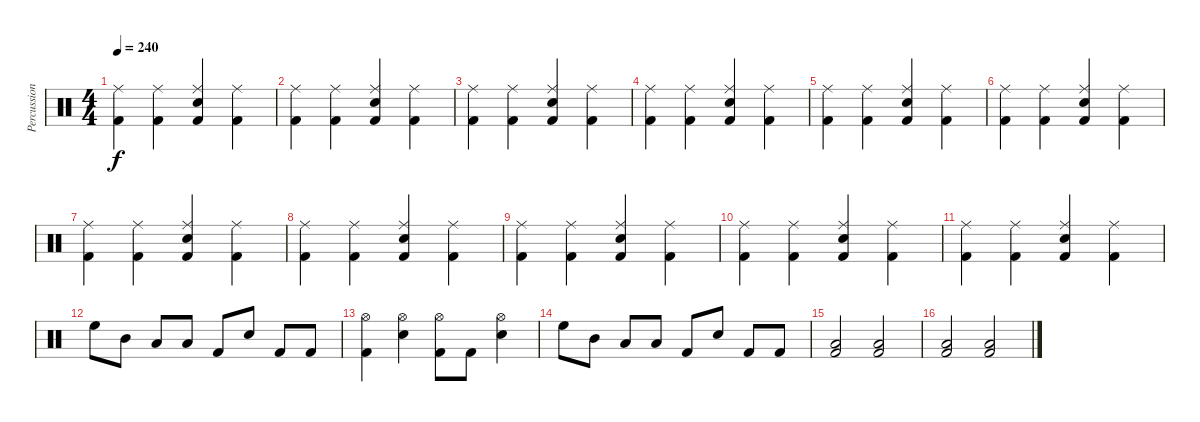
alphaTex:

\track ("Percussion" "Percussion") {instrument percussion}
\staff {score}
\articulation defaults
\ts (4 4)
\tempo 240
\clef neutral
\ks c
("Kick (hit) 2" "Ride (middle)").4{dy f} ("Kick (hit) 2" "Ride (middle)").4 ("Kick (hit) 2" "Snare (hit) 2" "Ride (middle)").4 ("Kick (hit) 2" "Ride (middle)").4 |
("Kick (hit) 2" "Ride (middle)").4 ("Kick (hit) 2" "Ride (middle)").4 ("Kick (hit) 2" "Snare (hit) 2" "Ride (middle)").4 ("Kick (hit) 2" "Ride (middle)").4 |
("Kick (hit) 2" "Ride (middle)").4 ("Kick (hit) 2" "Ride (middle)").4 ("Kick (hit) 2" "Snare (hit) 2" "Ride (middle)").4 ("Kick (hit) 2" "Ride (middle)").4 |
("Kick (hit) 2" "Ride (middle)").4 ("Kick (hit) 2" "Ride (middle)").4 ("Kick (hit) 2" "Snare (hit) 2" "Ride (middle)").4 ("Kick (hit) 2" "Ride (middle)").4 |
("Kick (hit) 2" "Ride (middle)").4 ("Kick (hit) 2" "Ride (middle)").4 ("Kick (hit) 2" "Snare (hit) 2" "Ride (middle)").4 ("Kick (hit) 2" "Ride (middle)").4 |
("Kick (hit) 2" "Ride (middle)").4 ("Kick (hit) 2" "Ride (middle)").4 ("Kick (hit) 2" "Snare (hit) 2" "Ride (middle)").4 ("Kick (hit) 2" "Ride (middle)").4 |
("Kick (hit) 2" "Ride (middle)").4 ("Kick (hit) 2" "Ride (middle)").4 ("Kick (hit) 2" "Snare (hit) 2" "Ride (middle)").4 ("Kick (hit) 2" "Ride (middle)").4 |
("Kick (hit) 2" "Ride (middle)").4 ("Kick (hit) 2" "Ride (middle)").4 ("Kick (hit) 2" "Snare (hit) 2" "Ride (middle)").4 ("Kick (hit) 2" "Ride (middle)").4 |
("Kick (hit) 2" "Ride (middle)").4 ("Kick (hit) 2" "Ride (middle)").4 ("Kick (hit) 2" "Snare (hit) 2" "Ride (middle)").4 ("Kick (hit) 2" "Ride (middle)").4 |
("Kick (hit) 2" "Ride (middle)").4 ("Kick (hit) 2" "Ride (middle)").4 ("Kick (hit) 2" "Snare (hit) 2" "Ride (middle)").4 ("Kick (hit) 2" "Ride (middle)").4 |
("Kick (hit) 2" "Ride (middle)").4 ("Kick (hit) 2" "Ride (middle)").4 ("Kick (hit) 2" "Snare (hit) 2" "Ride (middle)").4 ("Kick (hit) 2" "Ride (middle)").4 |
"High Floor Tom (hit)".8 "Mid Tom (hit)".8 "Low Floor Tom (hit)".8 "Low Floor Tom (hit)".8 "Kick (hit) 2".8 "Snare (hit) 2".8 "Kick (hit) 2".8 "Kick (hit) 2".8 |
("Kick (hit) 2" "Hi-Hat (open)").4 ("Snare (hit) 2" "Hi-Hat (open)").4 ("Kick (hit) 2" "Hi-Hat (open)").8 "Kick (hit) 2".8 ("Snare (hit) 2" "Hi-Hat (open)").4 |
"High Floor Tom (hit)".8 "Mid Tom (hit)".8 "Low Floor Tom (hit)".8 "Low Floor Tom (hit)".8 "Kick (hit) 2".8 "Snare (hit) 2".8 "Kick (hit) 2".8 "Kick (hit) 2".8 |
("Kick (hit) 2" "Low Floor Tom (hit)").2 ("Kick (hit) 2" "Low Floor Tom (hit)").2 |
("Kick (hit) 2" "Low Floor Tom (hit)").2 ("Kick (hit) 2" "Low Floor Tom (hit)").2
